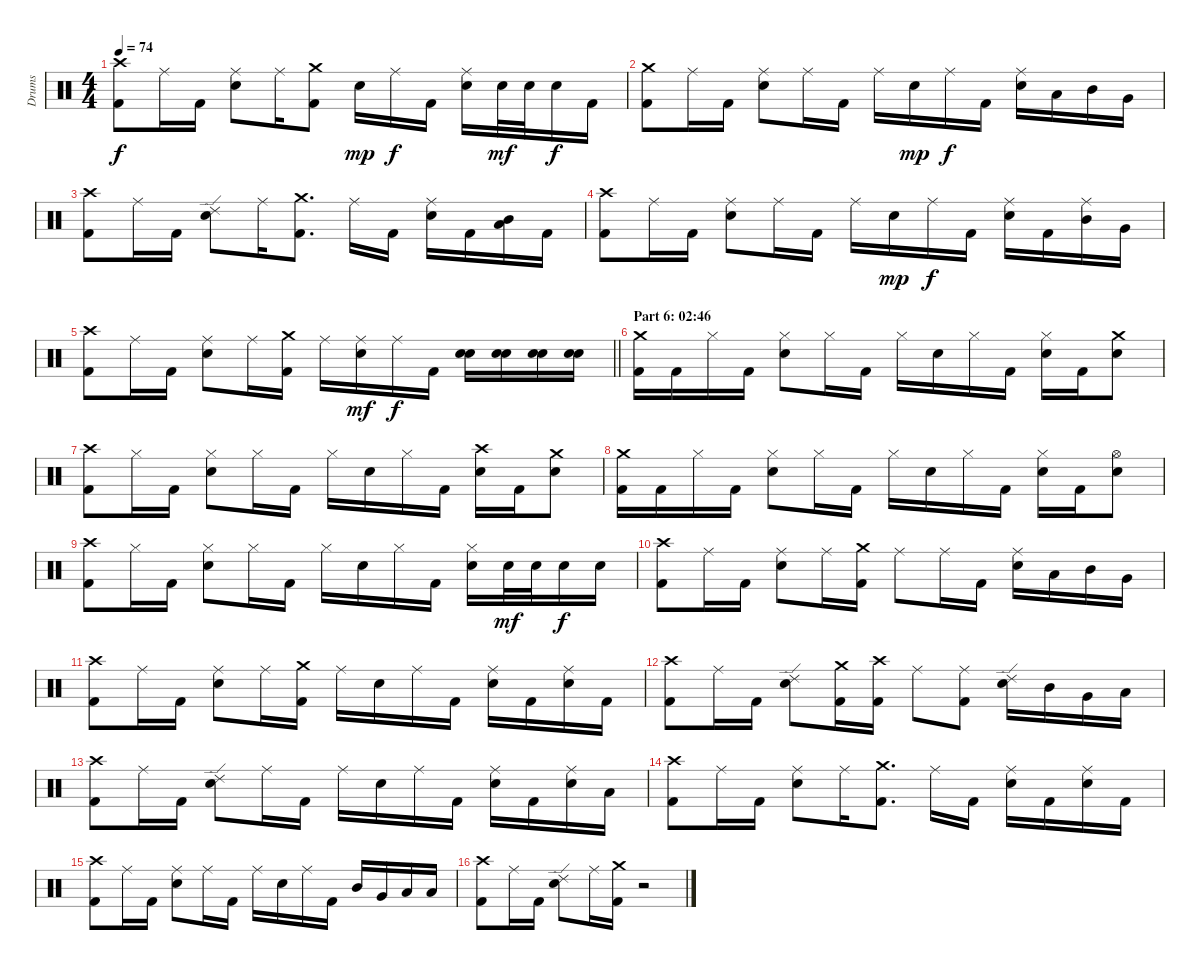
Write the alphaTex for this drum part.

\track ("Drums" "Drums") {instrument percussion}
\staff {score}
\articulation defaults
\ts (4 4)
\tempo 74
\clef neutral
\ks c
("Crash high (hit)" "Kick (hit) 2").8{dy f} "Ride (middle)".16 "Kick (hit) 2".16 ("Ride (middle)" "Electric Snare (hit)").8 "Ride (middle)".16 ("Crash medium (hit)" "Kick (hit) 2").8 "Electric Snare (hit)".16{dy mp} "Ride (middle)".16{dy f} "Kick (hit) 2".16 ("Ride (middle)" "Electric Snare (hit)").16 "Electric Snare (hit)".32{dy mf} "Electric Snare (hit)".32 "Electric Snare (hit)".16{dy f} "Kick (hit) 2".16 |
("Crash medium (hit)" "Kick (hit) 2").8 "Ride (middle)".16 "Kick (hit) 2".16 ("Ride (middle)" "Electric Snare (hit)").8 "Ride (middle)".16 "Kick (hit) 2".16 "Ride (middle)".16 "Electric Snare (hit)".16{dy mp} "Ride (middle)".16{dy f} "Kick (hit) 2".16 ("Ride (middle)" "Electric Snare (hit)").16 "Low Tom (hit)".16 "Mid Tom (hit)".16 "Very Low Tom (hit)".16 |
("Crash high (hit)" "Kick (hit) 2").8 "Ride (middle)".16 "Kick (hit) 2".16 ("Ride (edge) 2" "Electric Snare (hit)").8 "Ride (middle)".16 ("Crash medium (hit)" "Kick (hit) 2").8{d} "Ride (middle)".16 "Kick (hit) 2".16 ("Ride (middle)" "Electric Snare (hit)").16 "Kick (hit) 2".16 ("Mid Tom (hit)" "Low Tom (hit)").16{bd 120} "Kick (hit) 2".16 |
("Crash high (hit)" "Kick (hit) 2").8 "Ride (middle)".16 "Kick (hit) 2".16 ("Ride (middle)" "Electric Snare (hit)").8 "Ride (middle)".16 "Kick (hit) 2".16 "Ride (middle)".16 "Electric Snare (hit)".16{dy mp} "Ride (middle)".16{dy f} "Kick (hit) 2".16 ("Ride (middle)" "Electric Snare (hit)").16 "Kick (hit) 2".16 ("Ride (middle)" "Mid Tom (hit)").16 "Very Low Tom (hit)".16 |
\barLineRight lightlight
("Crash high (hit)" "Kick (hit) 2").8 "Ride (middle)".16 "Kick (hit) 2".16 ("Ride (middle)" "Electric Snare (hit)").8 "Ride (middle)".16 ("Crash medium (hit)" "Kick (hit) 2").16 "Ride (middle)".16 ("Ride (middle)" "Electric Snare (hit)").16{dy mf} "Ride (middle)".16{dy f} "Kick (hit) 2".16 ("Electric Snare (hit)" "Electric Snare (hit)").16{bd 120} ("Electric Snare (hit)" "Electric Snare (hit)").16{bd 120} ("Electric Snare (hit)" "Electric Snare (hit)").16{bd 120} ("Electric Snare (hit)" "Electric Snare (hit)").16{bd 120} |
\section ("" "Part 6: 02:46")
("Crash medium (hit)" "Kick (hit) 2").16 "Kick (hit) 2".16 "Hi-Hat (closed)".16 "Kick (hit) 2".16 ("Hi-Hat (closed)" "Electric Snare (hit)").8 "Hi-Hat (closed)".16 "Kick (hit) 2".16 "Hi-Hat (closed)".16 "Electric Snare (hit)".16 "Hi-Hat (closed)".16 "Kick (hit) 2".16 ("Hi-Hat (closed)" "Electric Snare (hit)").16 "Kick (hit) 2".16 ("Crash medium (hit)" "Electric Snare (hit)").8 |
("Crash high (hit)" "Kick (hit) 2").8 "Hi-Hat (closed)".16 "Kick (hit) 2".16 ("Hi-Hat (closed)" "Electric Snare (hit)").8 "Hi-Hat (closed)".16 "Kick (hit) 2".16 "Hi-Hat (closed)".16 "Electric Snare (hit)".16 "Hi-Hat (closed)".16 "Kick (hit) 2".16 ("Crash high (hit)" "Electric Snare (hit)").16 "Kick (hit) 2".16 ("Crash medium (hit)" "Electric Snare (hit)").8 |
("Crash medium (hit)" "Kick (hit) 2").16 "Kick (hit) 2".16 "Hi-Hat (closed)".16 "Kick (hit) 2".16 ("Hi-Hat (closed)" "Electric Snare (hit)").8 "Hi-Hat (closed)".16 "Kick (hit) 2".16 "Hi-Hat (closed)".16 "Electric Snare (hit)".16 "Hi-Hat (closed)".16 "Kick (hit) 2".16 ("Hi-Hat (closed)" "Electric Snare (hit)").16 "Kick (hit) 2".16 ("Hi-Hat (open)" "Electric Snare (hit)").8 |
("Crash high (hit)" "Kick (hit) 2").8 "Hi-Hat (closed)".16 "Kick (hit) 2".16 ("Hi-Hat (closed)" "Electric Snare (hit)").8 "Hi-Hat (closed)".16 "Kick (hit) 2".16 "Hi-Hat (closed)".16 "Electric Snare (hit)".16 "Hi-Hat (closed)".16 "Kick (hit) 2".16 ("Hi-Hat (closed)" "Electric Snare (hit)").16 "Electric Snare (hit)".32{dy mf} "Electric Snare (hit)".32 "Electric Snare (hit)".16{dy f} "Electric Snare (hit)".16 |
("Crash high (hit)" "Kick (hit) 2").8 "Ride (middle)".16 "Kick (hit) 2".16 ("Ride (middle)" "Electric Snare (hit)").8 "Ride (middle)".16 ("Crash medium (hit)" "Kick (hit) 2").16 "Ride (middle)".8 "Ride (middle)".16 "Kick (hit) 2".16 ("Ride (middle)" "Electric Snare (hit)").16 "Low Tom (hit)".16 "Mid Tom (hit)".16 "Very Low Tom (hit)".16 |
("Crash high (hit)" "Kick (hit) 2").8 "Ride (middle)".16 "Kick (hit) 2".16 ("Ride (middle)" "Electric Snare (hit)").8 "Ride (middle)".16 ("Crash medium (hit)" "Kick (hit) 2").16 "Ride (middle)".16 "Electric Snare (hit)".16 "Ride (middle)".16 "Kick (hit) 2".16 ("Ride (middle)" "Electric Snare (hit)").16 "Kick (hit) 2".16 ("Ride (middle)" "Electric Snare (hit)").16 "Kick (hit) 2".16 |
("Crash high (hit)" "Kick (hit) 2").8 "Ride (middle)".16 "Kick (hit) 2".16 ("Ride (edge) 2" "Electric Snare (hit)").8 ("Crash medium (hit)" "Kick (hit) 2").16 ("Crash high (hit)" "Kick (hit) 2").16 "Ride (middle)".8 ("Ride (middle)" "Kick (hit) 2").8 ("Ride (edge) 2" "Electric Snare (hit)").16 "Mid Tom (hit)".16 "Very Low Tom (hit)".16 "Low Tom (hit)".16 |
("Crash high (hit)" "Kick (hit) 2").8 "Ride (middle)".16 "Kick (hit) 2".16 ("Ride (edge) 2" "Electric Snare (hit)").8 "Ride (middle)".16 "Kick (hit) 2".16 "Ride (middle)".16 "Electric Snare (hit)".16 "Ride (middle)".16 "Kick (hit) 2".16 ("Ride (middle)" "Electric Snare (hit)").16 "Kick (hit) 2".16 ("Ride (middle)" "Electric Snare (hit)").16 "Low Floor Tom (hit)".16 |
("Crash high (hit)" "Kick (hit) 2").8 "Ride (middle)".16 "Kick (hit) 2".16 ("Ride (middle)" "Electric Snare (hit)").8 "Ride (middle)".16 ("Crash medium (hit)" "Kick (hit) 2").8{d} "Ride (middle)".16 "Kick (hit) 2".16 ("Ride (middle)" "Electric Snare (hit)").16 "Kick (hit) 2".16 ("Ride (middle)" "Electric Snare (hit)").16 "Kick (hit) 2".16 |
("Crash high (hit)" "Kick (hit) 2").8 "Ride (middle)".16 "Kick (hit) 2".16 ("Ride (middle)" "Electric Snare (hit)").8 "Ride (middle)".16 "Kick (hit) 2".16 "Ride (middle)".16 "Electric Snare (hit)".16 "Ride (middle)".16 "Kick (hit) 2".16 "Mid Tom (hit)".16 "Very Low Tom (hit)".16 "Low Tom (hit)".16 "Low Floor Tom (hit)".16 |
("Crash high (hit)" "Kick (hit) 2").8 "Ride (middle)".16 "Kick (hit) 2".16 ("Ride (edge) 2" "Electric Snare (hit)").8 "Ride (middle)".16 ("Crash medium (hit)" "Kick (hit) 2").16 r.2
